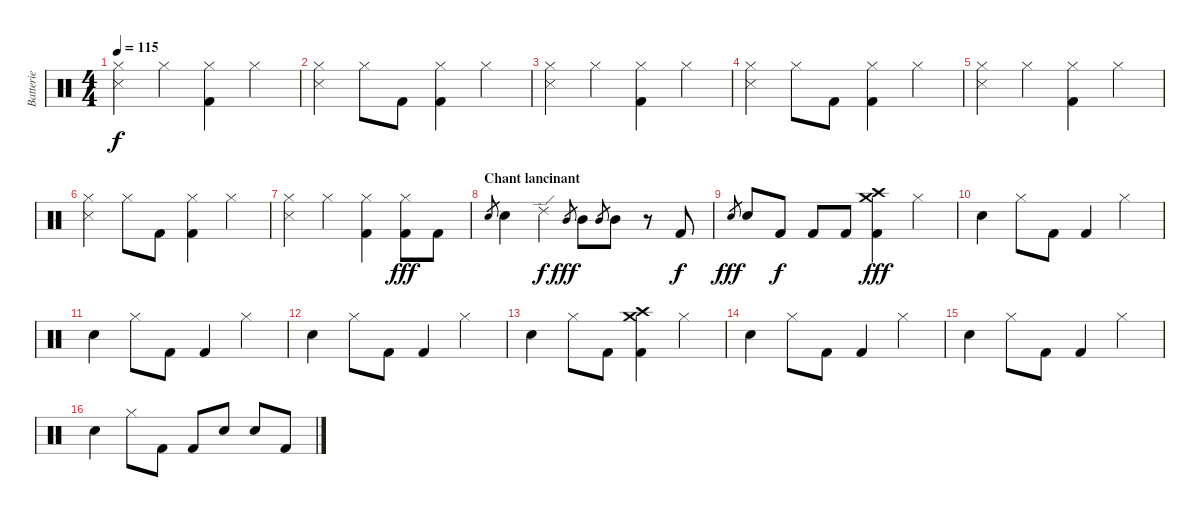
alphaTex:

\track ("Batterie" "Batterie") {instrument percussion}
\staff {score}
\articulation defaults
\ts (4 4)
\tempo 115
\clef neutral
\ks c
("Hi-Hat (closed)" "Snare (side stick) 3").4{dy f} "Hi-Hat (closed)".4 ("Hi-Hat (closed)" "Kick (hit) 2").4 "Hi-Hat (closed)".4 |
("Hi-Hat (closed)" "Snare (side stick) 3").4 "Hi-Hat (closed)".8 "Kick (hit) 2".8 ("Hi-Hat (closed)" "Kick (hit) 2").4 "Hi-Hat (closed)".4 |
("Hi-Hat (closed)" "Snare (side stick) 3").4 "Hi-Hat (closed)".4 ("Hi-Hat (closed)" "Kick (hit) 2").4 "Hi-Hat (closed)".4 |
("Hi-Hat (closed)" "Snare (side stick) 3").4 "Hi-Hat (closed)".8 "Kick (hit) 2".8 ("Hi-Hat (closed)" "Kick (hit) 2").4 "Hi-Hat (closed)".4 |
("Hi-Hat (closed)" "Snare (side stick) 3").4 "Hi-Hat (closed)".4 ("Hi-Hat (closed)" "Kick (hit) 2").4 "Hi-Hat (closed)".4 |
("Hi-Hat (closed)" "Snare (side stick) 3").4 "Hi-Hat (closed)".8 "Kick (hit) 2".8 ("Hi-Hat (closed)" "Kick (hit) 2").4 "Hi-Hat (closed)".4 |
("Hi-Hat (closed)" "Snare (side stick) 3").4 "Hi-Hat (closed)".4 ("Hi-Hat (closed)" "Kick (hit) 2").4 ("Hi-Hat (closed)" "Kick (hit) 2").8{dy fff} "Kick (hit) 2".8 |
\section ("" "Chant lancinant")
"Snare (hit) 2".8{gr} "Snare (hit) 2".4 "Ride (edge) 2".4{dy f} "Mid Tom (hit)".8{gr dy fff} "Mid Tom (hit)".8 "Mid Tom (hit)".8{gr} "Mid Tom (hit)".8 r.8 "Kick (hit) 2".8{dy f} |
"Snare (hit) 2".8{gr dy fff} "Snare (hit) 2".8 "Kick (hit) 2".8{dy f} "Kick (hit) 2".8 "Kick (hit) 2".8 ("Crash medium (hit)" "Crash high (hit)" "Kick (hit) 2").4{dy fff} "Hi-Hat (closed)".4 |
"Snare (hit) 2".4 "Hi-Hat (closed)".8 "Kick (hit) 2".8 "Kick (hit) 2".4 "Hi-Hat (closed)".4 |
"Snare (hit) 2".4 "Hi-Hat (closed)".8 "Kick (hit) 2".8 "Kick (hit) 2".4 "Hi-Hat (closed)".4 |
"Snare (hit) 2".4 "Hi-Hat (closed)".8 "Kick (hit) 2".8 "Kick (hit) 2".4 "Hi-Hat (closed)".4 |
"Snare (hit) 2".4 "Hi-Hat (closed)".8 "Kick (hit) 2".8 ("Crash medium (hit)" "Crash high (hit)" "Kick (hit) 2").4 "Hi-Hat (closed)".4 |
"Snare (hit) 2".4 "Hi-Hat (closed)".8 "Kick (hit) 2".8 "Kick (hit) 2".4 "Hi-Hat (closed)".4 |
"Snare (hit) 2".4 "Hi-Hat (closed)".8 "Kick (hit) 2".8 "Kick (hit) 2".4 "Hi-Hat (closed)".4 |
"Snare (hit) 2".4 "Hi-Hat (closed)".8 "Kick (hit) 2".8 "Kick (hit) 2".8 "Snare (hit) 2".8 "Snare (hit) 2".8 "Kick (hit) 2".8
